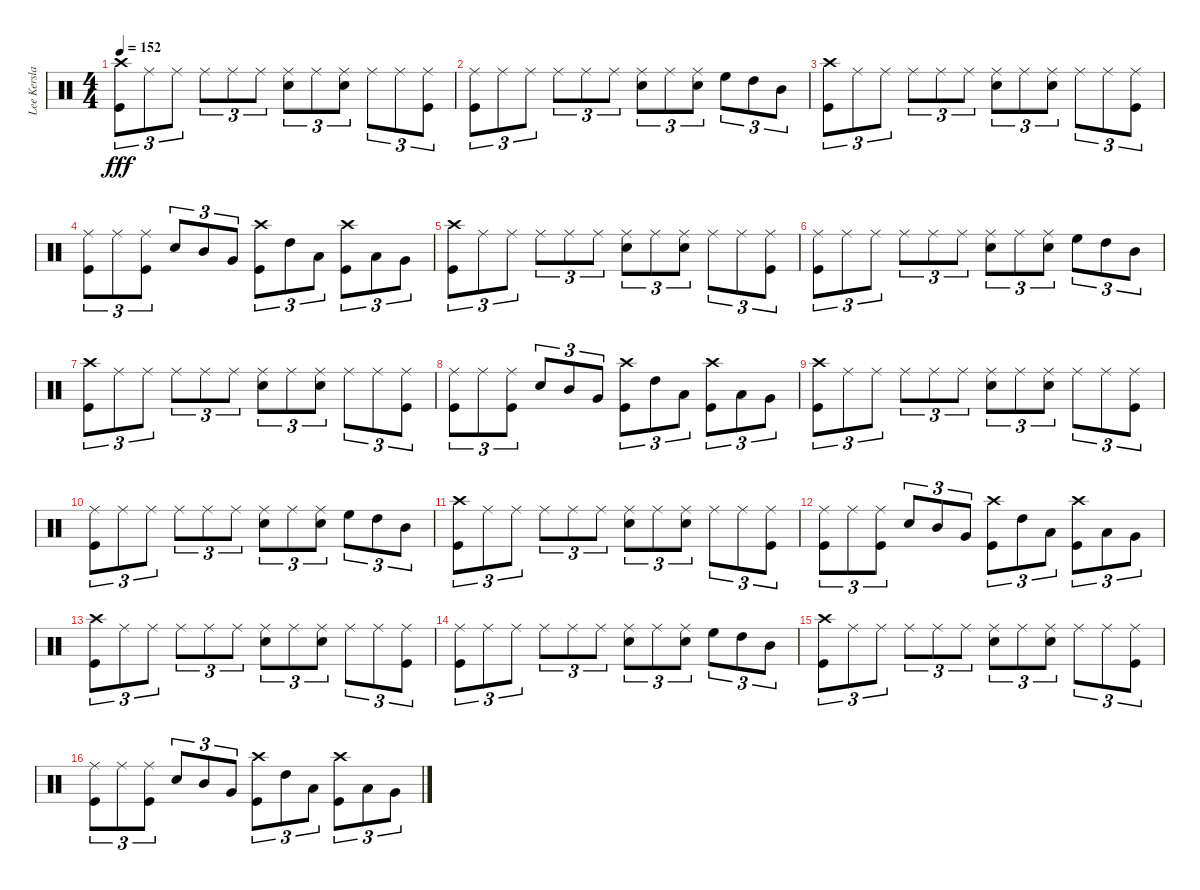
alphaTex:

\track ("Lee Kerslake" "Lee Kersla") {instrument percussion}
\staff {score}
\articulation defaults
\ts (4 4)
\tempo 152
\clef neutral
\ks c
("Kick (hit)" "Crash high (hit)").8{tu (3 2) dy fff} "Ride (middle)".8{tu (3 2)} "Ride (middle)".8{tu (3 2)} "Ride (middle)".8{tu (3 2)} "Ride (middle)".8{tu (3 2)} "Ride (middle)".8{tu (3 2)} ("Electric Snare (hit)" "Ride (middle)").8{tu (3 2)} "Ride (middle)".8{tu (3 2)} ("Ride (middle)" "Electric Snare (hit)").8{tu (3 2)} "Ride (middle)".8{tu (3 2)} "Ride (middle)".8{tu (3 2)} ("Ride (middle)" "Kick (hit)").8{tu (3 2)} |
("Kick (hit)" "Ride (middle)").8{tu (3 2)} "Ride (middle)".8{tu (3 2)} "Ride (middle)".8{tu (3 2)} "Ride (middle)".8{tu (3 2)} "Ride (middle)".8{tu (3 2)} "Ride (middle)".8{tu (3 2)} ("Electric Snare (hit)" "Ride (middle)").8{tu (3 2)} "Ride (middle)".8{tu (3 2)} ("Ride (middle)" "Electric Snare (hit)").8{tu (3 2)} "High Floor Tom (hit)".8{tu (3 2)} "High Tom (hit)".8{tu (3 2)} "Mid Tom (hit)".8{tu (3 2)} |
("Kick (hit)" "Crash high (hit)").8{tu (3 2)} "Ride (middle)".8{tu (3 2)} "Ride (middle)".8{tu (3 2)} "Ride (middle)".8{tu (3 2)} "Ride (middle)".8{tu (3 2)} "Ride (middle)".8{tu (3 2)} ("Electric Snare (hit)" "Ride (middle)").8{tu (3 2)} "Ride (middle)".8{tu (3 2)} ("Ride (middle)" "Electric Snare (hit)").8{tu (3 2)} "Ride (middle)".8{tu (3 2)} "Ride (middle)".8{tu (3 2)} ("Ride (middle)" "Kick (hit)").8{tu (3 2)} |
("Kick (hit)" "Ride (middle)").8{tu (3 2)} "Ride (middle)".8{tu (3 2)} ("Ride (middle)" "Kick (hit)").8{tu (3 2)} "Electric Snare (hit)".8{tu (3 2)} "Mid Tom (hit)".8{tu (3 2)} "Very Low Tom (hit)".8{tu (3 2)} ("Kick (hit)" "Crash high (hit)").8{tu (3 2)} "High Tom (hit)".8{tu (3 2)} "Low Tom (hit)".8{tu (3 2)} ("Crash high (hit)" "Kick (hit)").8{tu (3 2)} "Low Tom (hit)".8{tu (3 2)} "Very Low Tom (hit)".8{tu (3 2)} |
("Kick (hit)" "Crash high (hit)").8{tu (3 2)} "Ride (middle)".8{tu (3 2)} "Ride (middle)".8{tu (3 2)} "Ride (middle)".8{tu (3 2)} "Ride (middle)".8{tu (3 2)} "Ride (middle)".8{tu (3 2)} ("Electric Snare (hit)" "Ride (middle)").8{tu (3 2)} "Ride (middle)".8{tu (3 2)} ("Ride (middle)" "Electric Snare (hit)").8{tu (3 2)} "Ride (middle)".8{tu (3 2)} "Ride (middle)".8{tu (3 2)} ("Ride (middle)" "Kick (hit)").8{tu (3 2)} |
("Kick (hit)" "Ride (middle)").8{tu (3 2)} "Ride (middle)".8{tu (3 2)} "Ride (middle)".8{tu (3 2)} "Ride (middle)".8{tu (3 2)} "Ride (middle)".8{tu (3 2)} "Ride (middle)".8{tu (3 2)} ("Electric Snare (hit)" "Ride (middle)").8{tu (3 2)} "Ride (middle)".8{tu (3 2)} ("Ride (middle)" "Electric Snare (hit)").8{tu (3 2)} "High Floor Tom (hit)".8{tu (3 2)} "High Tom (hit)".8{tu (3 2)} "Mid Tom (hit)".8{tu (3 2)} |
("Kick (hit)" "Crash high (hit)").8{tu (3 2)} "Ride (middle)".8{tu (3 2)} "Ride (middle)".8{tu (3 2)} "Ride (middle)".8{tu (3 2)} "Ride (middle)".8{tu (3 2)} "Ride (middle)".8{tu (3 2)} ("Electric Snare (hit)" "Ride (middle)").8{tu (3 2)} "Ride (middle)".8{tu (3 2)} ("Ride (middle)" "Electric Snare (hit)").8{tu (3 2)} "Ride (middle)".8{tu (3 2)} "Ride (middle)".8{tu (3 2)} ("Ride (middle)" "Kick (hit)").8{tu (3 2)} |
("Kick (hit)" "Ride (middle)").8{tu (3 2)} "Ride (middle)".8{tu (3 2)} ("Ride (middle)" "Kick (hit)").8{tu (3 2)} "Electric Snare (hit)".8{tu (3 2)} "Mid Tom (hit)".8{tu (3 2)} "Very Low Tom (hit)".8{tu (3 2)} ("Kick (hit)" "Crash high (hit)").8{tu (3 2)} "High Tom (hit)".8{tu (3 2)} "Low Tom (hit)".8{tu (3 2)} ("Crash high (hit)" "Kick (hit)").8{tu (3 2)} "Low Tom (hit)".8{tu (3 2)} "Very Low Tom (hit)".8{tu (3 2)} |
("Kick (hit)" "Crash high (hit)").8{tu (3 2)} "Ride (middle)".8{tu (3 2)} "Ride (middle)".8{tu (3 2)} "Ride (middle)".8{tu (3 2)} "Ride (middle)".8{tu (3 2)} "Ride (middle)".8{tu (3 2)} ("Electric Snare (hit)" "Ride (middle)").8{tu (3 2)} "Ride (middle)".8{tu (3 2)} ("Ride (middle)" "Electric Snare (hit)").8{tu (3 2)} "Ride (middle)".8{tu (3 2)} "Ride (middle)".8{tu (3 2)} ("Ride (middle)" "Kick (hit)").8{tu (3 2)} |
("Kick (hit)" "Ride (middle)").8{tu (3 2)} "Ride (middle)".8{tu (3 2)} "Ride (middle)".8{tu (3 2)} "Ride (middle)".8{tu (3 2)} "Ride (middle)".8{tu (3 2)} "Ride (middle)".8{tu (3 2)} ("Electric Snare (hit)" "Ride (middle)").8{tu (3 2)} "Ride (middle)".8{tu (3 2)} ("Ride (middle)" "Electric Snare (hit)").8{tu (3 2)} "High Floor Tom (hit)".8{tu (3 2)} "High Tom (hit)".8{tu (3 2)} "Mid Tom (hit)".8{tu (3 2)} |
("Kick (hit)" "Crash high (hit)").8{tu (3 2)} "Ride (middle)".8{tu (3 2)} "Ride (middle)".8{tu (3 2)} "Ride (middle)".8{tu (3 2)} "Ride (middle)".8{tu (3 2)} "Ride (middle)".8{tu (3 2)} ("Electric Snare (hit)" "Ride (middle)").8{tu (3 2)} "Ride (middle)".8{tu (3 2)} ("Ride (middle)" "Electric Snare (hit)").8{tu (3 2)} "Ride (middle)".8{tu (3 2)} "Ride (middle)".8{tu (3 2)} ("Ride (middle)" "Kick (hit)").8{tu (3 2)} |
("Kick (hit)" "Ride (middle)").8{tu (3 2)} "Ride (middle)".8{tu (3 2)} ("Ride (middle)" "Kick (hit)").8{tu (3 2)} "Electric Snare (hit)".8{tu (3 2)} "Mid Tom (hit)".8{tu (3 2)} "Very Low Tom (hit)".8{tu (3 2)} ("Kick (hit)" "Crash high (hit)").8{tu (3 2)} "High Tom (hit)".8{tu (3 2)} "Low Tom (hit)".8{tu (3 2)} ("Crash high (hit)" "Kick (hit)").8{tu (3 2)} "Low Tom (hit)".8{tu (3 2)} "Very Low Tom (hit)".8{tu (3 2)} |
("Kick (hit)" "Crash high (hit)").8{tu (3 2)} "Ride (middle)".8{tu (3 2)} "Ride (middle)".8{tu (3 2)} "Ride (middle)".8{tu (3 2)} "Ride (middle)".8{tu (3 2)} "Ride (middle)".8{tu (3 2)} ("Electric Snare (hit)" "Ride (middle)").8{tu (3 2)} "Ride (middle)".8{tu (3 2)} ("Ride (middle)" "Electric Snare (hit)").8{tu (3 2)} "Ride (middle)".8{tu (3 2)} "Ride (middle)".8{tu (3 2)} ("Ride (middle)" "Kick (hit)").8{tu (3 2)} |
("Kick (hit)" "Ride (middle)").8{tu (3 2)} "Ride (middle)".8{tu (3 2)} "Ride (middle)".8{tu (3 2)} "Ride (middle)".8{tu (3 2)} "Ride (middle)".8{tu (3 2)} "Ride (middle)".8{tu (3 2)} ("Electric Snare (hit)" "Ride (middle)").8{tu (3 2)} "Ride (middle)".8{tu (3 2)} ("Ride (middle)" "Electric Snare (hit)").8{tu (3 2)} "High Floor Tom (hit)".8{tu (3 2)} "High Tom (hit)".8{tu (3 2)} "Mid Tom (hit)".8{tu (3 2)} |
("Kick (hit)" "Crash high (hit)").8{tu (3 2)} "Ride (middle)".8{tu (3 2)} "Ride (middle)".8{tu (3 2)} "Ride (middle)".8{tu (3 2)} "Ride (middle)".8{tu (3 2)} "Ride (middle)".8{tu (3 2)} ("Electric Snare (hit)" "Ride (middle)").8{tu (3 2)} "Ride (middle)".8{tu (3 2)} ("Ride (middle)" "Electric Snare (hit)").8{tu (3 2)} "Ride (middle)".8{tu (3 2)} "Ride (middle)".8{tu (3 2)} ("Ride (middle)" "Kick (hit)").8{tu (3 2)} |
("Kick (hit)" "Ride (middle)").8{tu (3 2)} "Ride (middle)".8{tu (3 2)} ("Ride (middle)" "Kick (hit)").8{tu (3 2)} "Electric Snare (hit)".8{tu (3 2)} "Mid Tom (hit)".8{tu (3 2)} "Very Low Tom (hit)".8{tu (3 2)} ("Kick (hit)" "Crash high (hit)").8{tu (3 2)} "High Tom (hit)".8{tu (3 2)} "Low Tom (hit)".8{tu (3 2)} ("Crash high (hit)" "Kick (hit)").8{tu (3 2)} "Low Tom (hit)".8{tu (3 2)} "Very Low Tom (hit)".8{tu (3 2)}
